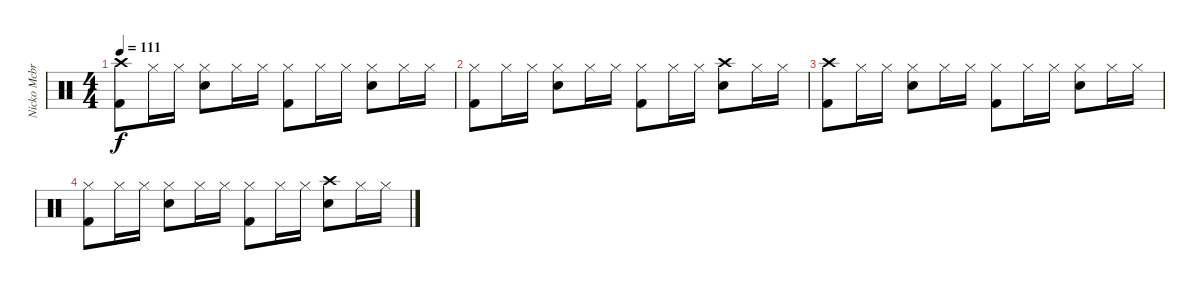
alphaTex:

\track ("Nicko Mcbrain" "Nicko Mcbr") {instrument percussion}
\staff {score}
\articulation defaults
\ts (4 4)
\tempo 111
\clef neutral
\ks c
("Crash high (hit)" "Kick (hit) 2").8{dy f} "Hi-Hat (closed)".16 "Hi-Hat (closed)".16 ("Hi-Hat (closed)" "Snare (hit) 2").8 "Hi-Hat (closed)".16 "Hi-Hat (closed)".16 ("Hi-Hat (closed)" "Kick (hit) 2").8 "Hi-Hat (closed)".16 "Hi-Hat (closed)".16 ("Hi-Hat (closed)" "Snare (hit) 2").8 "Hi-Hat (closed)".16 "Hi-Hat (closed)".16 |
("Hi-Hat (closed)" "Kick (hit) 2").8 "Hi-Hat (closed)".16 "Hi-Hat (closed)".16 ("Hi-Hat (closed)" "Snare (hit) 2").8 "Hi-Hat (closed)".16 "Hi-Hat (closed)".16 ("Hi-Hat (closed)" "Kick (hit) 2").8 "Hi-Hat (closed)".16 "Hi-Hat (closed)".16 ("Crash high (hit)" "Snare (hit) 2").8 "Hi-Hat (closed)".16 "Hi-Hat (closed)".16 |
("Crash high (hit)" "Kick (hit) 2").8 "Hi-Hat (closed)".16 "Hi-Hat (closed)".16 ("Hi-Hat (closed)" "Snare (hit) 2").8 "Hi-Hat (closed)".16 "Hi-Hat (closed)".16 ("Hi-Hat (closed)" "Kick (hit) 2").8 "Hi-Hat (closed)".16 "Hi-Hat (closed)".16 ("Hi-Hat (closed)" "Snare (hit) 2").8 "Hi-Hat (closed)".16 "Hi-Hat (closed)".16 |
("Hi-Hat (closed)" "Kick (hit) 2").8 "Hi-Hat (closed)".16 "Hi-Hat (closed)".16 ("Hi-Hat (closed)" "Snare (hit) 2").8 "Hi-Hat (closed)".16 "Hi-Hat (closed)".16 ("Hi-Hat (closed)" "Kick (hit) 2").8 "Hi-Hat (closed)".16 "Hi-Hat (closed)".16 ("Crash high (hit)" "Snare (hit) 2").8 "Hi-Hat (closed)".16 "Hi-Hat (closed)".16
